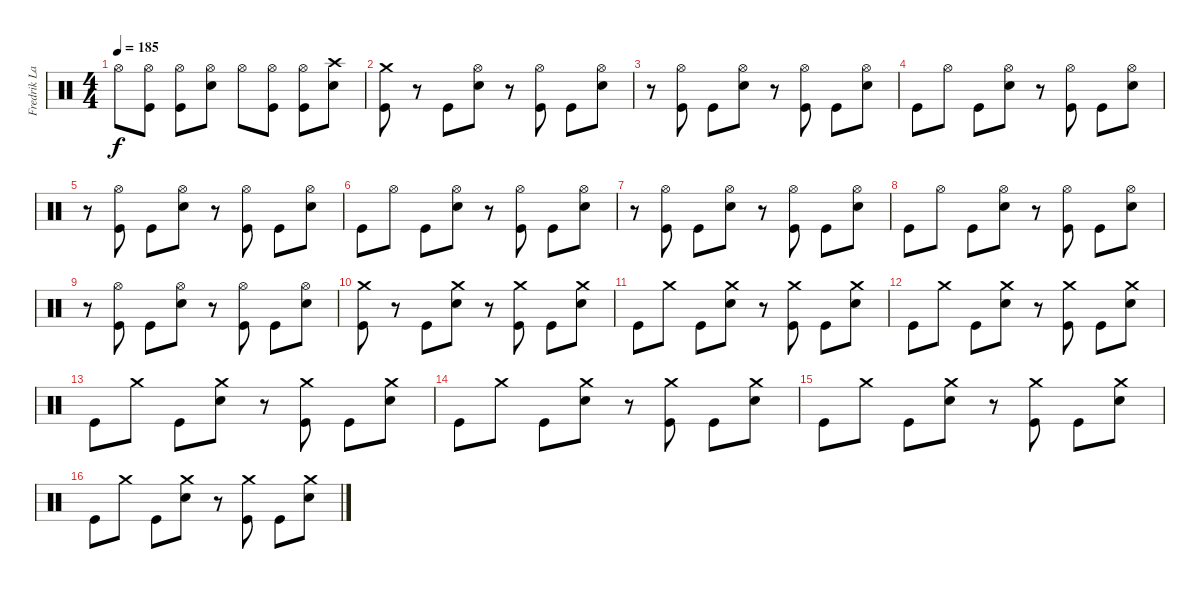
\track ("Fredrik Larzon" "Fredrik La") {instrument percussion}
\staff {score}
\articulation defaults
\ts (4 4)
\tempo 185
\clef neutral
\ks c "Hi-Hat (open)".8{dy f}
("Hi-Hat (open)" "Kick (hit)").8 ("Hi-Hat (open)" "Kick (hit)").8 ("Hi-Hat (open)" "Electric Snare (hit)").8 "Hi-Hat (open)".8 ("Hi-Hat (open)" "Kick (hit)").8 ("Hi-Hat (open)" "Kick (hit)").8 ("Crash high (hit)" "Electric Snare (hit)").8 |
("Crash medium (hit)" "Kick (hit)").8 r.8 "Kick (hit)".8 ("Hi-Hat (open)" "Electric Snare (hit)").8 r.8 ("Hi-Hat (open)" "Kick (hit)").8 "Kick (hit)".8 ("Hi-Hat (open)" "Electric Snare (hit)").8 |
r.8 ("Hi-Hat (open)" "Kick (hit)").8 "Kick (hit)".8 ("Hi-Hat (open)" "Electric Snare (hit)").8 r.8 ("Hi-Hat (open)" "Kick (hit)").8 "Kick (hit)".8 ("Hi-Hat (open)" "Electric Snare (hit)").8 |
"Kick (hit)".8 "Hi-Hat (open)".8 "Kick (hit)".8 ("Hi-Hat (open)" "Electric Snare (hit)").8 r.8 ("Hi-Hat (open)" "Kick (hit)").8 "Kick (hit)".8 ("Hi-Hat (open)" "Electric Snare (hit)").8 |
r.8 ("Hi-Hat (open)" "Kick (hit)").8 "Kick (hit)".8 ("Hi-Hat (open)" "Electric Snare (hit)").8 r.8 ("Hi-Hat (open)" "Kick (hit)").8 "Kick (hit)".8 ("Hi-Hat (open)" "Electric Snare (hit)").8 |
"Kick (hit)".8 "Hi-Hat (open)".8 "Kick (hit)".8 ("Hi-Hat (open)" "Electric Snare (hit)").8 r.8 ("Hi-Hat (open)" "Kick (hit)").8 "Kick (hit)".8 ("Hi-Hat (open)" "Electric Snare (hit)").8 |
r.8 ("Hi-Hat (open)" "Kick (hit)").8 "Kick (hit)".8 ("Hi-Hat (open)" "Electric Snare (hit)").8 r.8 ("Hi-Hat (open)" "Kick (hit)").8 "Kick (hit)".8 ("Hi-Hat (open)" "Electric Snare (hit)").8 |
"Kick (hit)".8 "Hi-Hat (open)".8 "Kick (hit)".8 ("Hi-Hat (open)" "Electric Snare (hit)").8 r.8 ("Hi-Hat (open)" "Kick (hit)").8 "Kick (hit)".8 ("Hi-Hat (open)" "Electric Snare (hit)").8 |
r.8 ("Hi-Hat (open)" "Kick (hit)").8 "Kick (hit)".8 ("Hi-Hat (open)" "Electric Snare (hit)").8 r.8 ("Hi-Hat (open)" "Kick (hit)").8 "Kick (hit)".8 ("Hi-Hat (open)" "Electric Snare (hit)").8 |
("Crash medium (hit)" "Kick (hit)").8 r.8 "Kick (hit)".8 ("Crash medium (hit)" "Electric Snare (hit)").8 r.8 ("Crash medium (hit)" "Kick (hit)").8 "Kick (hit)".8 ("Crash medium (hit)" "Electric Snare (hit)").8 |
"Kick (hit)".8 "Crash medium (hit)".8 "Kick (hit)".8 ("Crash medium (hit)" "Electric Snare (hit)").8 r.8 ("Crash medium (hit)" "Kick (hit)").8 "Kick (hit)".8 ("Crash medium (hit)" "Electric Snare (hit)").8 |
"Kick (hit)".8 "Crash medium (hit)".8 "Kick (hit)".8 ("Crash medium (hit)" "Electric Snare (hit)").8 r.8 ("Crash medium (hit)" "Kick (hit)").8 "Kick (hit)".8 ("Crash medium (hit)" "Electric Snare (hit)").8 |
"Kick (hit)".8 "Crash medium (hit)".8 "Kick (hit)".8 ("Crash medium (hit)" "Electric Snare (hit)").8 r.8 ("Crash medium (hit)" "Kick (hit)").8 "Kick (hit)".8 ("Crash medium (hit)" "Electric Snare (hit)").8 |
"Kick (hit)".8 "Crash medium (hit)".8 "Kick (hit)".8 ("Crash medium (hit)" "Electric Snare (hit)").8 r.8 ("Crash medium (hit)" "Kick (hit)").8 "Kick (hit)".8 ("Crash medium (hit)" "Electric Snare (hit)").8 |
"Kick (hit)".8 "Crash medium (hit)".8 "Kick (hit)".8 ("Crash medium (hit)" "Electric Snare (hit)").8 r.8 ("Crash medium (hit)" "Kick (hit)").8 "Kick (hit)".8 ("Crash medium (hit)" "Electric Snare (hit)").8 |
"Kick (hit)".8 "Crash medium (hit)".8 "Kick (hit)".8 ("Crash medium (hit)" "Electric Snare (hit)").8 r.8 ("Crash medium (hit)" "Kick (hit)").8 "Kick (hit)".8 ("Crash medium (hit)" "Electric Snare (hit)").8
